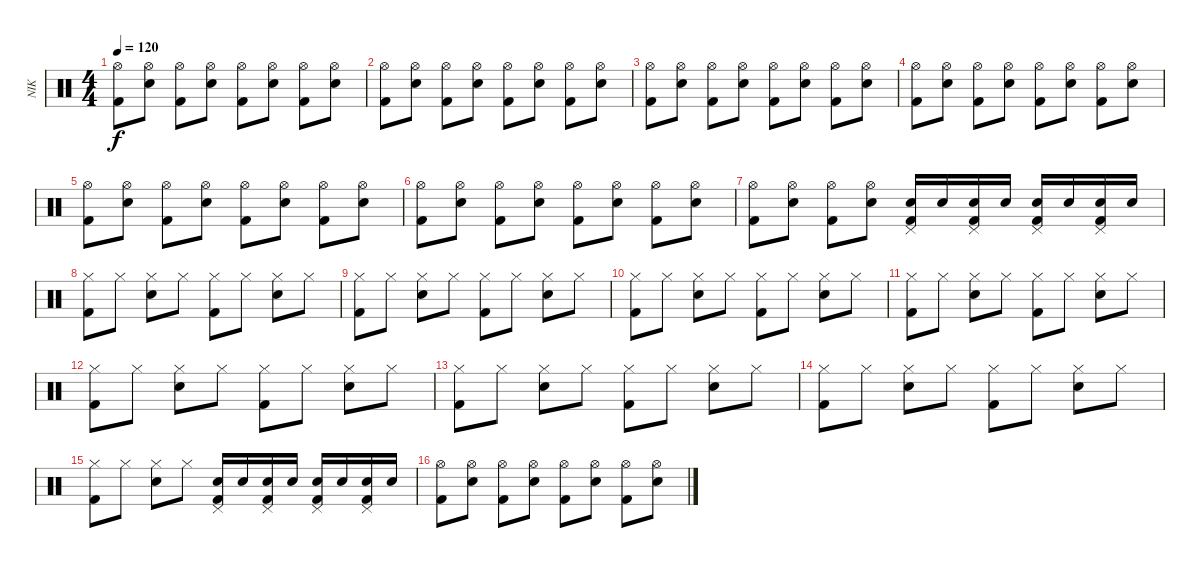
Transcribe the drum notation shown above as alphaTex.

\track ("NIK" "NIK") {instrument percussion}
\staff {score}
\articulation defaults
\ts (4 4)
\tempo 120
\clef neutral
\ks c
("Hi-Hat (open)" "Kick (hit) 2").8{dy f} ("Hi-Hat (open)" "Electric Snare (hit)").8 ("Hi-Hat (open)" "Kick (hit) 2").8 ("Hi-Hat (open)" "Electric Snare (hit)").8 ("Hi-Hat (open)" "Kick (hit) 2").8 ("Hi-Hat (open)" "Electric Snare (hit)").8 ("Hi-Hat (open)" "Kick (hit) 2").8 ("Hi-Hat (open)" "Electric Snare (hit)").8 |
("Hi-Hat (open)" "Kick (hit) 2").8 ("Hi-Hat (open)" "Electric Snare (hit)").8 ("Hi-Hat (open)" "Kick (hit) 2").8 ("Hi-Hat (open)" "Electric Snare (hit)").8 ("Hi-Hat (open)" "Kick (hit) 2").8 ("Hi-Hat (open)" "Electric Snare (hit)").8 ("Hi-Hat (open)" "Kick (hit) 2").8 ("Hi-Hat (open)" "Electric Snare (hit)").8 |
("Hi-Hat (open)" "Kick (hit) 2").8 ("Hi-Hat (open)" "Electric Snare (hit)").8 ("Hi-Hat (open)" "Kick (hit) 2").8 ("Hi-Hat (open)" "Electric Snare (hit)").8 ("Hi-Hat (open)" "Kick (hit) 2").8 ("Hi-Hat (open)" "Electric Snare (hit)").8 ("Hi-Hat (open)" "Kick (hit) 2").8 ("Hi-Hat (open)" "Electric Snare (hit)").8 |
("Hi-Hat (open)" "Kick (hit) 2").8 ("Hi-Hat (open)" "Electric Snare (hit)").8 ("Hi-Hat (open)" "Kick (hit) 2").8 ("Hi-Hat (open)" "Electric Snare (hit)").8 ("Hi-Hat (open)" "Kick (hit) 2").8 ("Hi-Hat (open)" "Electric Snare (hit)").8 ("Hi-Hat (open)" "Kick (hit) 2").8 ("Hi-Hat (open)" "Electric Snare (hit)").8 |
("Hi-Hat (open)" "Kick (hit) 2").8 ("Hi-Hat (open)" "Electric Snare (hit)").8 ("Hi-Hat (open)" "Kick (hit) 2").8 ("Hi-Hat (open)" "Electric Snare (hit)").8 ("Hi-Hat (open)" "Kick (hit) 2").8 ("Hi-Hat (open)" "Electric Snare (hit)").8 ("Hi-Hat (open)" "Kick (hit) 2").8 ("Hi-Hat (open)" "Electric Snare (hit)").8 |
("Hi-Hat (open)" "Kick (hit) 2").8 ("Hi-Hat (open)" "Electric Snare (hit)").8 ("Hi-Hat (open)" "Kick (hit) 2").8 ("Hi-Hat (open)" "Electric Snare (hit)").8 ("Hi-Hat (open)" "Kick (hit) 2").8 ("Hi-Hat (open)" "Electric Snare (hit)").8 ("Hi-Hat (open)" "Kick (hit) 2").8 ("Hi-Hat (open)" "Electric Snare (hit)").8 |
("Hi-Hat (open)" "Kick (hit) 2").8 ("Hi-Hat (open)" "Electric Snare (hit)").8 ("Hi-Hat (open)" "Kick (hit) 2").8 ("Hi-Hat (open)" "Electric Snare (hit)").8 ("Electric Snare (hit)" "Kick (hit) 2" "Pedal Hi-Hat (hit)").16 "Electric Snare (hit)".16 ("Electric Snare (hit)" "Kick (hit) 2" "Pedal Hi-Hat (hit)").16 "Electric Snare (hit)".16 ("Electric Snare (hit)" "Kick (hit) 2" "Pedal Hi-Hat (hit)").16 "Electric Snare (hit)".16 ("Electric Snare (hit)" "Kick (hit) 2" "Pedal Hi-Hat (hit)").16 "Electric Snare (hit)".16 |
("Hi-Hat (closed)" "Kick (hit) 2").8 "Hi-Hat (closed)".8 ("Hi-Hat (closed)" "Electric Snare (hit)").8 "Hi-Hat (closed)".8 ("Hi-Hat (closed)" "Kick (hit) 2").8 "Hi-Hat (closed)".8 ("Hi-Hat (closed)" "Electric Snare (hit)").8 "Hi-Hat (closed)".8 |
("Hi-Hat (closed)" "Kick (hit) 2").8 "Hi-Hat (closed)".8 ("Hi-Hat (closed)" "Electric Snare (hit)").8 "Hi-Hat (closed)".8 ("Hi-Hat (closed)" "Kick (hit) 2").8 "Hi-Hat (closed)".8 ("Hi-Hat (closed)" "Electric Snare (hit)").8 "Hi-Hat (closed)".8 |
("Hi-Hat (closed)" "Kick (hit) 2").8 "Hi-Hat (closed)".8 ("Hi-Hat (closed)" "Electric Snare (hit)").8 "Hi-Hat (closed)".8 ("Hi-Hat (closed)" "Kick (hit) 2").8 "Hi-Hat (closed)".8 ("Hi-Hat (closed)" "Electric Snare (hit)").8 "Hi-Hat (closed)".8 |
("Hi-Hat (closed)" "Kick (hit) 2").8 "Hi-Hat (closed)".8 ("Hi-Hat (closed)" "Electric Snare (hit)").8 "Hi-Hat (closed)".8 ("Hi-Hat (closed)" "Kick (hit) 2").8 "Hi-Hat (closed)".8 ("Hi-Hat (closed)" "Electric Snare (hit)").8 "Hi-Hat (closed)".8 |
("Hi-Hat (closed)" "Kick (hit) 2").8 "Hi-Hat (closed)".8 ("Hi-Hat (closed)" "Electric Snare (hit)").8 "Hi-Hat (closed)".8 ("Hi-Hat (closed)" "Kick (hit) 2").8 "Hi-Hat (closed)".8 ("Hi-Hat (closed)" "Electric Snare (hit)").8 "Hi-Hat (closed)".8 |
("Hi-Hat (closed)" "Kick (hit) 2").8 "Hi-Hat (closed)".8 ("Hi-Hat (closed)" "Electric Snare (hit)").8 "Hi-Hat (closed)".8 ("Hi-Hat (closed)" "Kick (hit) 2").8 "Hi-Hat (closed)".8 ("Hi-Hat (closed)" "Electric Snare (hit)").8 "Hi-Hat (closed)".8 |
("Hi-Hat (closed)" "Kick (hit) 2").8 "Hi-Hat (closed)".8 ("Hi-Hat (closed)" "Electric Snare (hit)").8 "Hi-Hat (closed)".8 ("Hi-Hat (closed)" "Kick (hit) 2").8 "Hi-Hat (closed)".8 ("Hi-Hat (closed)" "Electric Snare (hit)").8 "Hi-Hat (closed)".8 |
("Hi-Hat (closed)" "Kick (hit) 2").8 "Hi-Hat (closed)".8 ("Hi-Hat (closed)" "Electric Snare (hit)").8 "Hi-Hat (closed)".8 ("Electric Snare (hit)" "Kick (hit) 2" "Pedal Hi-Hat (hit)").16 "Electric Snare (hit)".16 ("Electric Snare (hit)" "Kick (hit) 2" "Pedal Hi-Hat (hit)").16 "Electric Snare (hit)".16 ("Electric Snare (hit)" "Kick (hit) 2" "Pedal Hi-Hat (hit)").16 "Electric Snare (hit)".16 ("Electric Snare (hit)" "Kick (hit) 2" "Pedal Hi-Hat (hit)").16 "Electric Snare (hit)".16 |
("Hi-Hat (open)" "Kick (hit) 2").8 ("Hi-Hat (open)" "Electric Snare (hit)").8 ("Hi-Hat (open)" "Kick (hit) 2").8 ("Hi-Hat (open)" "Electric Snare (hit)").8 ("Hi-Hat (open)" "Kick (hit) 2").8 ("Hi-Hat (open)" "Electric Snare (hit)").8 ("Hi-Hat (open)" "Kick (hit) 2").8 ("Hi-Hat (open)" "Electric Snare (hit)").8
